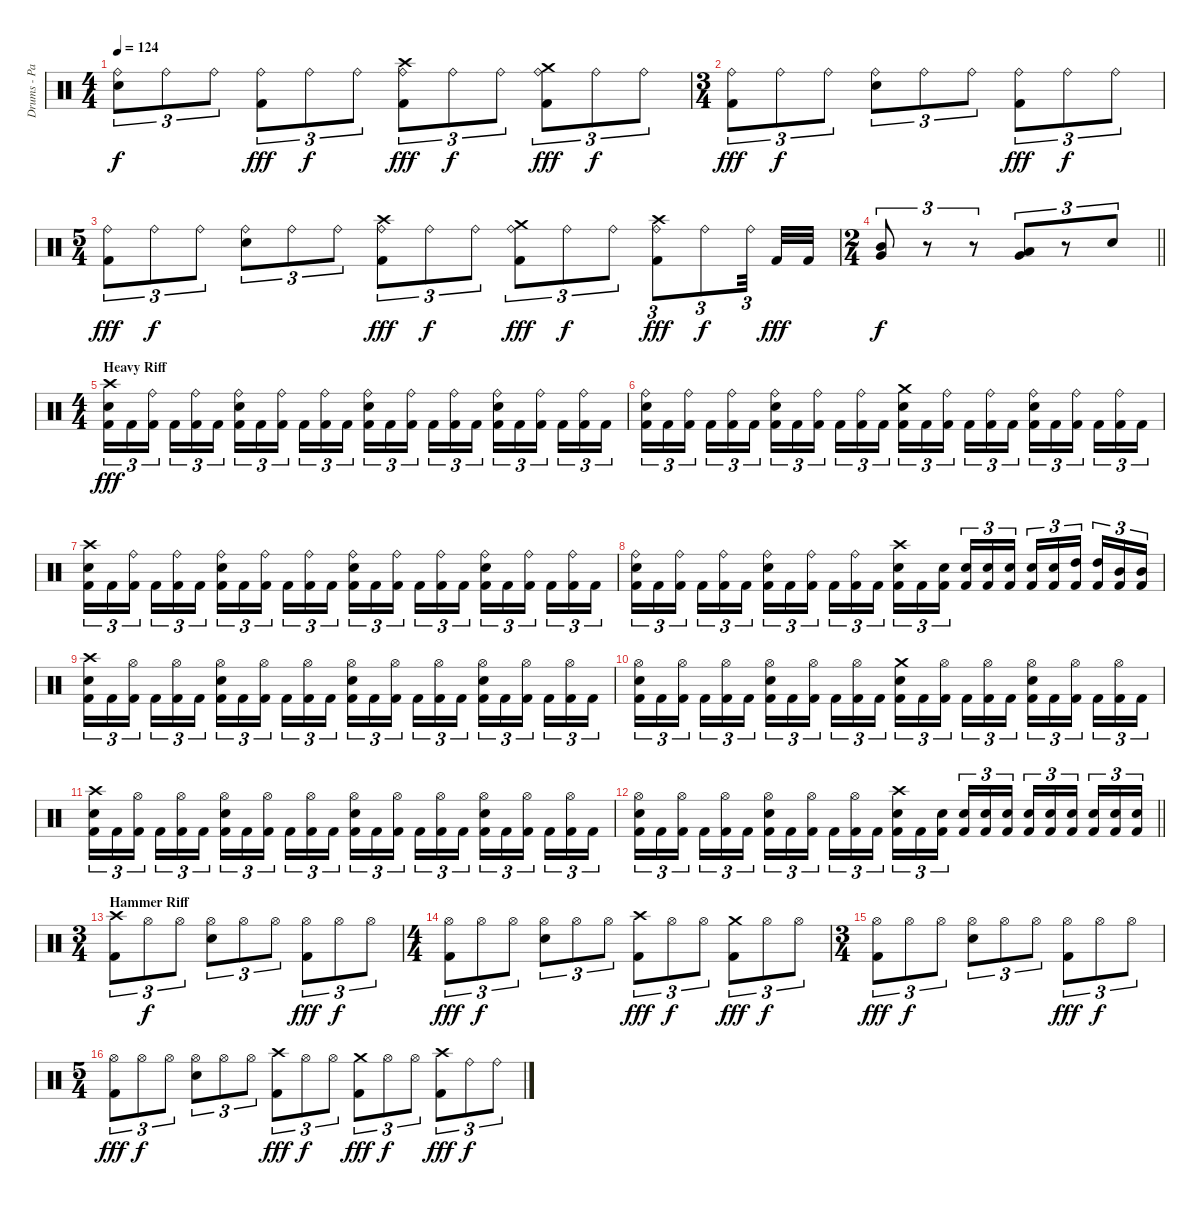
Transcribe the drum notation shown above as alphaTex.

\track ("Drums - Paul Mazurkiewicz" "Drums - Pa") {instrument percussion}
\staff {score}
\articulation defaults
\ts (4 4)
\tempo 124
\clef neutral
\ks c
("Ride (bell)" "Snare (hit) 2").8{tu (3 2) dy f} "Ride (bell)".8{tu (3 2)} "Ride (bell)".8{tu (3 2)} ("Ride (bell)" "Kick (hit) 2").8{tu (3 2) dy fff} "Ride (bell)".8{tu (3 2) dy f} "Ride (bell)".8{tu (3 2)} ("Crash high (hit)" "Ride (bell)" "Kick (hit) 2").8{tu (3 2) dy fff} "Ride (bell)".8{tu (3 2) dy f} "Ride (bell)".8{tu (3 2)} ("Crash medium (hit)" "Ride (bell)" "Kick (hit) 2").8{tu (3 2) dy fff} "Ride (bell)".8{tu (3 2) dy f} "Ride (bell)".8{tu (3 2)} |
\ts (3 4)
("Ride (bell)" "Kick (hit) 2").8{tu (3 2) dy fff} "Ride (bell)".8{tu (3 2) dy f} "Ride (bell)".8{tu (3 2)} ("Ride (bell)" "Snare (hit) 2").8{tu (3 2)} "Ride (bell)".8{tu (3 2)} "Ride (bell)".8{tu (3 2)} ("Ride (bell)" "Kick (hit) 2").8{tu (3 2) dy fff} "Ride (bell)".8{tu (3 2) dy f} "Ride (bell)".8{tu (3 2)} |
\ts (5 4)
("Ride (bell)" "Kick (hit) 2").8{tu (3 2) dy fff} "Ride (bell)".8{tu (3 2) dy f} "Ride (bell)".8{tu (3 2)} ("Ride (bell)" "Snare (hit) 2").8{tu (3 2)} "Ride (bell)".8{tu (3 2)} "Ride (bell)".8{tu (3 2)} ("Crash high (hit)" "Ride (bell)" "Kick (hit) 2").8{tu (3 2) dy fff} "Ride (bell)".8{tu (3 2) dy f} "Ride (bell)".8{tu (3 2)} ("Crash medium (hit)" "Ride (bell)" "Kick (hit) 2").8{tu (3 2) dy fff} "Ride (bell)".8{tu (3 2) dy f} "Ride (bell)".8{tu (3 2)} ("Crash high (hit)" "Ride (bell)" "Kick (hit) 2").8{tu (3 2) dy fff} "Ride (bell)".8{tu (3 2) dy f} "Ride (bell)".32{tu (3 2) beam splitsecondary} "Kick (hit) 2".32{dy fff} "Kick (hit) 2".32 |
\ts (2 4)
\barLineRight lightlight
("Mid Tom (hit)" "Very Low Tom (hit)").8{tu (3 2) dy f} r.8{tu (3 2)} r.8{tu (3 2)} ("Low Tom (hit)" "Very Low Tom (hit)").8{tu (3 2)} r.8{tu (3 2)} "Snare (hit) 2".8{tu (3 2)} |
\ts (4 4)
\section ("" "Heavy Riff")
("Crash high (hit)" "Snare (hit) 2" "Kick (hit) 2").16{tu (3 2) dy fff} "Kick (hit) 2".16{tu (3 2)} ("Ride (bell)" "Kick (hit) 2").16{tu (3 2) beam splitsecondary} "Kick (hit) 2".16{tu (3 2)} ("Ride (bell)" "Kick (hit) 2").16{tu (3 2)} "Kick (hit) 2".16{tu (3 2)} ("Ride (bell)" "Snare (hit) 2" "Kick (hit) 2").16{tu (3 2)} "Kick (hit) 2".16{tu (3 2)} ("Ride (bell)" "Kick (hit) 2").16{tu (3 2) beam splitsecondary} "Kick (hit) 2".16{tu (3 2)} ("Ride (bell)" "Kick (hit) 2").16{tu (3 2)} "Kick (hit) 2".16{tu (3 2)} ("Ride (bell)" "Snare (hit) 2" "Kick (hit) 2").16{tu (3 2)} "Kick (hit) 2".16{tu (3 2)} ("Ride (bell)" "Kick (hit) 2").16{tu (3 2) beam splitsecondary} "Kick (hit) 2".16{tu (3 2)} ("Ride (bell)" "Kick (hit) 2").16{tu (3 2)} "Kick (hit) 2".16{tu (3 2)} ("Ride (bell)" "Snare (hit) 2" "Kick (hit) 2").16{tu (3 2)} "Kick (hit) 2".16{tu (3 2)} ("Ride (bell)" "Kick (hit) 2").16{tu (3 2) beam splitsecondary} "Kick (hit) 2".16{tu (3 2)} ("Ride (bell)" "Kick (hit) 2").16{tu (3 2)} "Kick (hit) 2".16{tu (3 2)} |
("Ride (bell)" "Snare (hit) 2" "Kick (hit) 2").16{tu (3 2)} "Kick (hit) 2".16{tu (3 2)} ("Ride (bell)" "Kick (hit) 2").16{tu (3 2) beam splitsecondary} "Kick (hit) 2".16{tu (3 2)} ("Ride (bell)" "Kick (hit) 2").16{tu (3 2)} "Kick (hit) 2".16{tu (3 2)} ("Ride (bell)" "Snare (hit) 2" "Kick (hit) 2").16{tu (3 2)} "Kick (hit) 2".16{tu (3 2)} ("Ride (bell)" "Kick (hit) 2").16{tu (3 2) beam splitsecondary} "Kick (hit) 2".16{tu (3 2)} ("Ride (bell)" "Kick (hit) 2").16{tu (3 2)} "Kick (hit) 2".16{tu (3 2)} ("Crash medium (hit)" "Snare (hit) 2" "Kick (hit) 2").16{tu (3 2)} "Kick (hit) 2".16{tu (3 2)} ("Ride (bell)" "Kick (hit) 2").16{tu (3 2) beam splitsecondary} "Kick (hit) 2".16{tu (3 2)} ("Ride (bell)" "Kick (hit) 2").16{tu (3 2)} "Kick (hit) 2".16{tu (3 2)} ("Ride (bell)" "Snare (hit) 2" "Kick (hit) 2").16{tu (3 2)} "Kick (hit) 2".16{tu (3 2)} ("Ride (bell)" "Kick (hit) 2").16{tu (3 2) beam splitsecondary} "Kick (hit) 2".16{tu (3 2)} ("Ride (bell)" "Kick (hit) 2").16{tu (3 2)} "Kick (hit) 2".16{tu (3 2)} |
("Crash high (hit)" "Snare (hit) 2" "Kick (hit) 2").16{tu (3 2)} "Kick (hit) 2".16{tu (3 2)} ("Ride (bell)" "Kick (hit) 2").16{tu (3 2) beam splitsecondary} "Kick (hit) 2".16{tu (3 2)} ("Ride (bell)" "Kick (hit) 2").16{tu (3 2)} "Kick (hit) 2".16{tu (3 2)} ("Ride (bell)" "Snare (hit) 2" "Kick (hit) 2").16{tu (3 2)} "Kick (hit) 2".16{tu (3 2)} ("Ride (bell)" "Kick (hit) 2").16{tu (3 2) beam splitsecondary} "Kick (hit) 2".16{tu (3 2)} ("Ride (bell)" "Kick (hit) 2").16{tu (3 2)} "Kick (hit) 2".16{tu (3 2)} ("Ride (bell)" "Snare (hit) 2" "Kick (hit) 2").16{tu (3 2)} "Kick (hit) 2".16{tu (3 2)} ("Ride (bell)" "Kick (hit) 2").16{tu (3 2) beam splitsecondary} "Kick (hit) 2".16{tu (3 2)} ("Ride (bell)" "Kick (hit) 2").16{tu (3 2)} "Kick (hit) 2".16{tu (3 2)} ("Ride (bell)" "Snare (hit) 2" "Kick (hit) 2").16{tu (3 2)} "Kick (hit) 2".16{tu (3 2)} ("Ride (bell)" "Kick (hit) 2").16{tu (3 2) beam splitsecondary} "Kick (hit) 2".16{tu (3 2)} ("Ride (bell)" "Kick (hit) 2").16{tu (3 2)} "Kick (hit) 2".16{tu (3 2)} |
("Ride (bell)" "Snare (hit) 2" "Kick (hit) 2").16{tu (3 2)} "Kick (hit) 2".16{tu (3 2)} ("Ride (bell)" "Kick (hit) 2").16{tu (3 2) beam splitsecondary} "Kick (hit) 2".16{tu (3 2)} ("Ride (bell)" "Kick (hit) 2").16{tu (3 2)} "Kick (hit) 2".16{tu (3 2)} ("Ride (bell)" "Snare (hit) 2" "Kick (hit) 2").16{tu (3 2)} "Kick (hit) 2".16{tu (3 2)} ("Ride (bell)" "Kick (hit) 2").16{tu (3 2) beam splitsecondary} "Kick (hit) 2".16{tu (3 2)} ("Ride (bell)" "Kick (hit) 2").16{tu (3 2)} "Kick (hit) 2".16{tu (3 2)} ("Crash high (hit)" "Snare (hit) 2" "Kick (hit) 2").16{tu (3 2)} "Kick (hit) 2".16{tu (3 2)} ("Snare (hit) 2" "Kick (hit) 2").16{tu (3 2) beam splitsecondary} ("Snare (hit) 2" "Kick (hit) 2").16{tu (3 2)} ("Snare (hit) 2" "Kick (hit) 2").16{tu (3 2)} ("Snare (hit) 2" "Kick (hit) 2").16{tu (3 2)} ("Snare (hit) 2" "Kick (hit) 2").16{tu (3 2)} ("Snare (hit) 2" "Kick (hit) 2").16{tu (3 2)} ("High Tom (hit)" "Kick (hit) 2").16{tu (3 2) beam splitsecondary} ("High Tom (hit)" "Kick (hit) 2").16{tu (3 2)} ("Mid Tom (hit)" "Kick (hit) 2").16{tu (3 2)} ("Mid Tom (hit)" "Kick (hit) 2").16{tu (3 2)} |
("Crash high (hit)" "Snare (hit) 2" "Kick (hit) 2").16{tu (3 2)} "Kick (hit) 2".16{tu (3 2)} ("Hi-Hat (open)" "Kick (hit) 2").16{tu (3 2) beam splitsecondary} "Kick (hit) 2".16{tu (3 2)} ("Hi-Hat (open)" "Kick (hit) 2").16{tu (3 2)} "Kick (hit) 2".16{tu (3 2)} ("Hi-Hat (open)" "Snare (hit) 2" "Kick (hit) 2").16{tu (3 2)} "Kick (hit) 2".16{tu (3 2)} ("Hi-Hat (open)" "Kick (hit) 2").16{tu (3 2) beam splitsecondary} "Kick (hit) 2".16{tu (3 2)} ("Hi-Hat (open)" "Kick (hit) 2").16{tu (3 2)} "Kick (hit) 2".16{tu (3 2)} ("Hi-Hat (open)" "Snare (hit) 2" "Kick (hit) 2").16{tu (3 2)} "Kick (hit) 2".16{tu (3 2)} ("Hi-Hat (open)" "Kick (hit) 2").16{tu (3 2) beam splitsecondary} "Kick (hit) 2".16{tu (3 2)} ("Hi-Hat (open)" "Kick (hit) 2").16{tu (3 2)} "Kick (hit) 2".16{tu (3 2)} ("Hi-Hat (open)" "Snare (hit) 2" "Kick (hit) 2").16{tu (3 2)} "Kick (hit) 2".16{tu (3 2)} ("Hi-Hat (open)" "Kick (hit) 2").16{tu (3 2) beam splitsecondary} "Kick (hit) 2".16{tu (3 2)} ("Hi-Hat (open)" "Kick (hit) 2").16{tu (3 2)} "Kick (hit) 2".16{tu (3 2)} |
("Hi-Hat (open)" "Snare (hit) 2" "Kick (hit) 2").16{tu (3 2)} "Kick (hit) 2".16{tu (3 2)} ("Hi-Hat (open)" "Kick (hit) 2").16{tu (3 2) beam splitsecondary} "Kick (hit) 2".16{tu (3 2)} ("Hi-Hat (open)" "Kick (hit) 2").16{tu (3 2)} "Kick (hit) 2".16{tu (3 2)} ("Hi-Hat (open)" "Snare (hit) 2" "Kick (hit) 2").16{tu (3 2)} "Kick (hit) 2".16{tu (3 2)} ("Hi-Hat (open)" "Kick (hit) 2").16{tu (3 2) beam splitsecondary} "Kick (hit) 2".16{tu (3 2)} ("Hi-Hat (open)" "Kick (hit) 2").16{tu (3 2)} "Kick (hit) 2".16{tu (3 2)} ("Crash medium (hit)" "Snare (hit) 2" "Kick (hit) 2").16{tu (3 2)} "Kick (hit) 2".16{tu (3 2)} ("Hi-Hat (open)" "Kick (hit) 2").16{tu (3 2) beam splitsecondary} "Kick (hit) 2".16{tu (3 2)} ("Hi-Hat (open)" "Kick (hit) 2").16{tu (3 2)} "Kick (hit) 2".16{tu (3 2)} ("Hi-Hat (open)" "Snare (hit) 2" "Kick (hit) 2").16{tu (3 2)} "Kick (hit) 2".16{tu (3 2)} ("Hi-Hat (open)" "Kick (hit) 2").16{tu (3 2) beam splitsecondary} "Kick (hit) 2".16{tu (3 2)} ("Hi-Hat (open)" "Kick (hit) 2").16{tu (3 2)} "Kick (hit) 2".16{tu (3 2)} |
("Crash high (hit)" "Snare (hit) 2" "Kick (hit) 2").16{tu (3 2)} "Kick (hit) 2".16{tu (3 2)} ("Hi-Hat (open)" "Kick (hit) 2").16{tu (3 2) beam splitsecondary} "Kick (hit) 2".16{tu (3 2)} ("Hi-Hat (open)" "Kick (hit) 2").16{tu (3 2)} "Kick (hit) 2".16{tu (3 2)} ("Hi-Hat (open)" "Snare (hit) 2" "Kick (hit) 2").16{tu (3 2)} "Kick (hit) 2".16{tu (3 2)} ("Hi-Hat (open)" "Kick (hit) 2").16{tu (3 2) beam splitsecondary} "Kick (hit) 2".16{tu (3 2)} ("Hi-Hat (open)" "Kick (hit) 2").16{tu (3 2)} "Kick (hit) 2".16{tu (3 2)} ("Hi-Hat (open)" "Snare (hit) 2" "Kick (hit) 2").16{tu (3 2)} "Kick (hit) 2".16{tu (3 2)} ("Hi-Hat (open)" "Kick (hit) 2").16{tu (3 2) beam splitsecondary} "Kick (hit) 2".16{tu (3 2)} ("Hi-Hat (open)" "Kick (hit) 2").16{tu (3 2)} "Kick (hit) 2".16{tu (3 2)} ("Hi-Hat (open)" "Snare (hit) 2" "Kick (hit) 2").16{tu (3 2)} "Kick (hit) 2".16{tu (3 2)} ("Hi-Hat (open)" "Kick (hit) 2").16{tu (3 2) beam splitsecondary} "Kick (hit) 2".16{tu (3 2)} ("Hi-Hat (open)" "Kick (hit) 2").16{tu (3 2)} "Kick (hit) 2".16{tu (3 2)} |
\barLineRight lightlight
("Hi-Hat (open)" "Snare (hit) 2" "Kick (hit) 2").16{tu (3 2)} "Kick (hit) 2".16{tu (3 2)} ("Hi-Hat (open)" "Kick (hit) 2").16{tu (3 2) beam splitsecondary} "Kick (hit) 2".16{tu (3 2)} ("Hi-Hat (open)" "Kick (hit) 2").16{tu (3 2)} "Kick (hit) 2".16{tu (3 2)} ("Hi-Hat (open)" "Snare (hit) 2" "Kick (hit) 2").16{tu (3 2)} "Kick (hit) 2".16{tu (3 2)} ("Hi-Hat (open)" "Kick (hit) 2").16{tu (3 2) beam splitsecondary} "Kick (hit) 2".16{tu (3 2)} ("Hi-Hat (open)" "Kick (hit) 2").16{tu (3 2)} "Kick (hit) 2".16{tu (3 2)} ("Crash high (hit)" "Snare (hit) 2" "Kick (hit) 2").16{tu (3 2)} "Kick (hit) 2".16{tu (3 2)} ("Snare (hit) 2" "Kick (hit) 2").16{tu (3 2) beam splitsecondary} ("Snare (hit) 2" "Kick (hit) 2").16{tu (3 2)} ("Snare (hit) 2" "Kick (hit) 2").16{tu (3 2)} ("Snare (hit) 2" "Kick (hit) 2").16{tu (3 2)} ("Snare (hit) 2" "Kick (hit) 2").16{tu (3 2)} ("Snare (hit) 2" "Kick (hit) 2").16{tu (3 2)} ("Snare (hit) 2" "Kick (hit) 2").16{tu (3 2) beam splitsecondary} ("Snare (hit) 2" "Kick (hit) 2").16{tu (3 2)} ("Snare (hit) 2" "Kick (hit) 2").16{tu (3 2)} ("Snare (hit) 2" "Kick (hit) 2").16{tu (3 2)} |
\ts (3 4)
\section ("" "Hammer Riff")
("Crash high (hit)" "Kick (hit) 2").8{tu (3 2)} "Hi-Hat (open)".8{tu (3 2) dy f} "Hi-Hat (open)".8{tu (3 2)} ("Hi-Hat (open)" "Snare (hit) 2").8{tu (3 2)} "Hi-Hat (open)".8{tu (3 2)} "Hi-Hat (open)".8{tu (3 2)} ("Hi-Hat (open)" "Kick (hit) 2").8{tu (3 2) dy fff} "Hi-Hat (open)".8{tu (3 2) dy f} "Hi-Hat (open)".8{tu (3 2)} |
\ts (4 4)
("Hi-Hat (open)" "Kick (hit) 2").8{tu (3 2) dy fff} "Hi-Hat (open)".8{tu (3 2) dy f} "Hi-Hat (open)".8{tu (3 2)} ("Hi-Hat (open)" "Snare (hit) 2").8{tu (3 2)} "Hi-Hat (open)".8{tu (3 2)} "Hi-Hat (open)".8{tu (3 2)} ("Crash high (hit)" "Kick (hit) 2").8{tu (3 2) dy fff} "Hi-Hat (open)".8{tu (3 2) dy f} "Hi-Hat (open)".8{tu (3 2)} ("Crash medium (hit)" "Kick (hit) 2").8{tu (3 2) dy fff} "Hi-Hat (open)".8{tu (3 2) dy f} "Hi-Hat (open)".8{tu (3 2)} |
\ts (3 4)
("Hi-Hat (open)" "Kick (hit) 2").8{tu (3 2) dy fff} "Hi-Hat (open)".8{tu (3 2) dy f} "Hi-Hat (open)".8{tu (3 2)} ("Hi-Hat (open)" "Snare (hit) 2").8{tu (3 2)} "Hi-Hat (open)".8{tu (3 2)} "Hi-Hat (open)".8{tu (3 2)} ("Hi-Hat (open)" "Kick (hit) 2").8{tu (3 2) dy fff} "Hi-Hat (open)".8{tu (3 2) dy f} "Hi-Hat (open)".8{tu (3 2)} |
\ts (5 4)
("Hi-Hat (open)" "Kick (hit) 2").8{tu (3 2) dy fff} "Hi-Hat (open)".8{tu (3 2) dy f} "Hi-Hat (open)".8{tu (3 2)} ("Hi-Hat (open)" "Snare (hit) 2").8{tu (3 2)} "Hi-Hat (open)".8{tu (3 2)} "Hi-Hat (open)".8{tu (3 2)} ("Crash high (hit)" "Kick (hit) 2").8{tu (3 2) dy fff} "Hi-Hat (open)".8{tu (3 2) dy f} "Hi-Hat (open)".8{tu (3 2)} ("Crash medium (hit)" "Kick (hit) 2").8{tu (3 2) dy fff} "Hi-Hat (open)".8{tu (3 2) dy f} "Hi-Hat (open)".8{tu (3 2)} ("Crash high (hit)" "Kick (hit) 2").8{tu (3 2) dy fff} "Ride (bell)".8{tu (3 2) dy f} "Ride (bell)".8{tu (3 2)}
